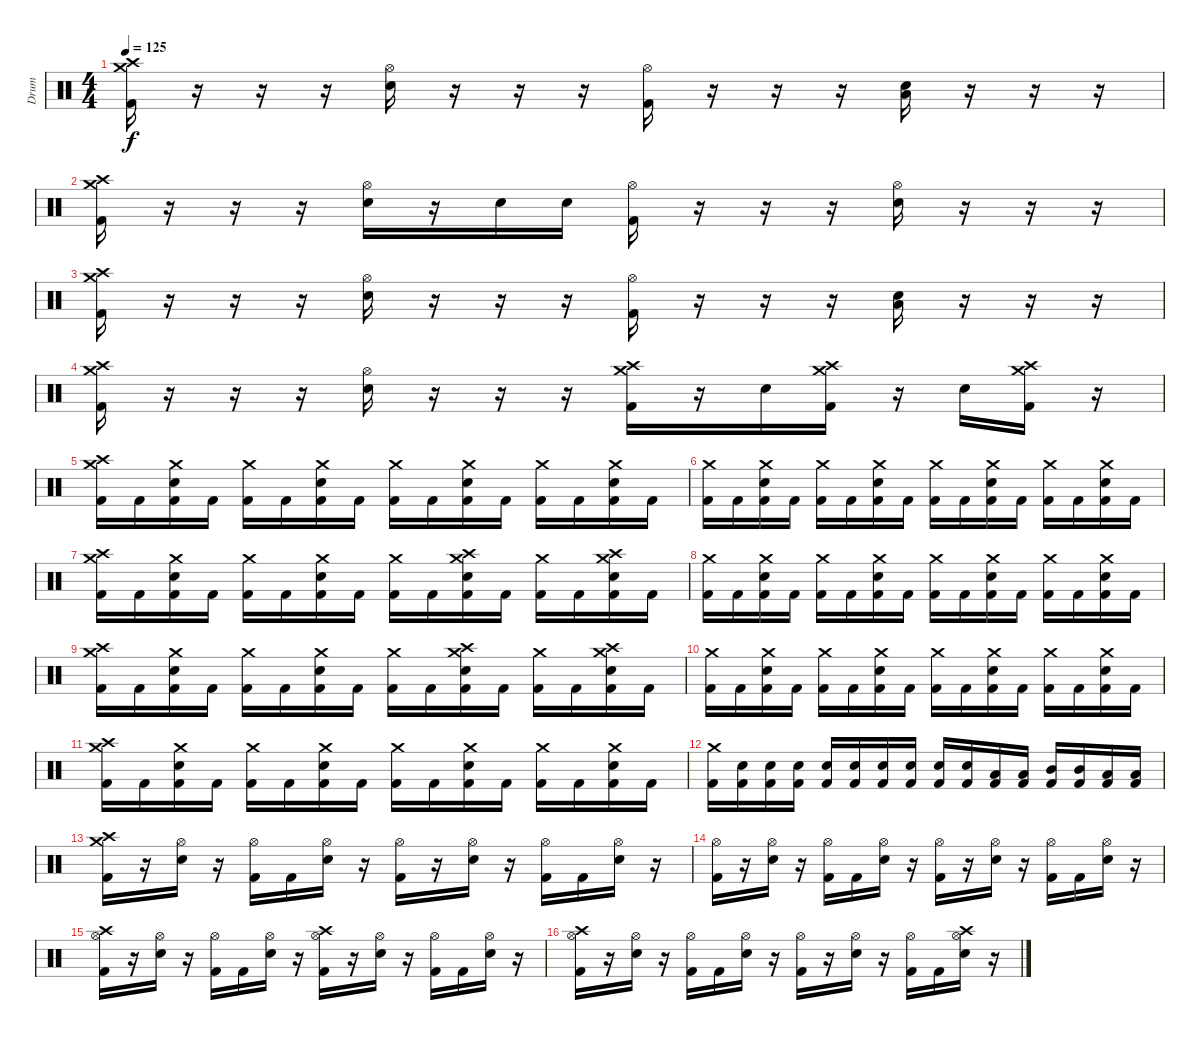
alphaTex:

\track ("Drum" "Drum") {instrument percussion}
\staff {score}
\articulation defaults
\ts (4 4)
\tempo 125
\clef neutral
\ks c
("Crash high (hit)" "Crash medium (hit)" "Kick (hit) 2").16{dy f} r.16 r.16 r.16 ("Hi-Hat (open)" "Electric Snare (hit)").16 r.16 r.16 r.16 ("Hi-Hat (open)" "Kick (hit) 2").16 r.16 r.16 r.16 ("Low Floor Tom (hit)" "Electric Snare (hit)").16 r.16 r.16 r.16 |
("Crash high (hit)" "Crash medium (hit)" "Kick (hit) 2").16 r.16 r.16 r.16 ("Hi-Hat (open)" "Electric Snare (hit)").16 r.16 "Electric Snare (hit)".16 "Electric Snare (hit)".16 ("Hi-Hat (open)" "Kick (hit) 2").16 r.16 r.16 r.16 ("Hi-Hat (open)" "Electric Snare (hit)").16 r.16 r.16 r.16 |
("Crash high (hit)" "Crash medium (hit)" "Kick (hit) 2").16 r.16 r.16 r.16 ("Hi-Hat (open)" "Electric Snare (hit)").16 r.16 r.16 r.16 ("Hi-Hat (open)" "Kick (hit) 2").16 r.16 r.16 r.16 ("Low Floor Tom (hit)" "Electric Snare (hit)").16 r.16 r.16 r.16 |
("Crash high (hit)" "Crash medium (hit)" "Kick (hit) 2").16 r.16 r.16 r.16 ("Hi-Hat (open)" "Electric Snare (hit)").16 r.16 r.16 r.16 ("Crash high (hit)" "Crash medium (hit)" "Kick (hit) 2").16 r.16 "Electric Snare (hit)".16 ("Crash high (hit)" "Crash medium (hit)" "Kick (hit) 2").16 r.16 "Electric Snare (hit)".16 ("Crash high (hit)" "Crash medium (hit)" "Kick (hit) 2").16 r.16 |
("Crash high (hit)" "Crash medium (hit)" "Kick (hit) 2").16 "Kick (hit) 2".16 ("Crash medium (hit)" "Kick (hit) 2" "Electric Snare (hit)").16 "Kick (hit) 2".16 ("Crash medium (hit)" "Kick (hit) 2").16 "Kick (hit) 2".16 ("Crash medium (hit)" "Kick (hit) 2" "Electric Snare (hit)").16 "Kick (hit) 2".16 ("Crash medium (hit)" "Kick (hit) 2").16 "Kick (hit) 2".16 ("Crash medium (hit)" "Kick (hit) 2" "Electric Snare (hit)").16 "Kick (hit) 2".16 ("Crash medium (hit)" "Kick (hit) 2").16 "Kick (hit) 2".16 ("Crash medium (hit)" "Kick (hit) 2" "Electric Snare (hit)").16 "Kick (hit) 2".16 |
("Crash medium (hit)" "Kick (hit) 2").16 "Kick (hit) 2".16 ("Crash medium (hit)" "Kick (hit) 2" "Electric Snare (hit)").16 "Kick (hit) 2".16 ("Crash medium (hit)" "Kick (hit) 2").16 "Kick (hit) 2".16 ("Crash medium (hit)" "Kick (hit) 2" "Electric Snare (hit)").16 "Kick (hit) 2".16 ("Crash medium (hit)" "Kick (hit) 2").16 "Kick (hit) 2".16 ("Crash medium (hit)" "Kick (hit) 2" "Electric Snare (hit)").16 "Kick (hit) 2".16 ("Crash medium (hit)" "Kick (hit) 2").16 "Kick (hit) 2".16 ("Crash medium (hit)" "Kick (hit) 2" "Electric Snare (hit)").16 "Kick (hit) 2".16 |
("Crash high (hit)" "Crash medium (hit)" "Kick (hit) 2").16 "Kick (hit) 2".16 ("Crash medium (hit)" "Kick (hit) 2" "Electric Snare (hit)").16 "Kick (hit) 2".16 ("Crash medium (hit)" "Kick (hit) 2").16 "Kick (hit) 2".16 ("Crash medium (hit)" "Kick (hit) 2" "Electric Snare (hit)").16 "Kick (hit) 2".16 ("Crash medium (hit)" "Kick (hit) 2").16 "Kick (hit) 2".16 ("Crash high (hit)" "Crash medium (hit)" "Kick (hit) 2" "Electric Snare (hit)").16 "Kick (hit) 2".16 ("Crash medium (hit)" "Kick (hit) 2").16 "Kick (hit) 2".16 ("Crash high (hit)" "Crash medium (hit)" "Kick (hit) 2" "Electric Snare (hit)").16 "Kick (hit) 2".16 |
("Crash medium (hit)" "Kick (hit) 2").16 "Kick (hit) 2".16 ("Crash medium (hit)" "Kick (hit) 2" "Electric Snare (hit)").16 "Kick (hit) 2".16 ("Crash medium (hit)" "Kick (hit) 2").16 "Kick (hit) 2".16 ("Crash medium (hit)" "Kick (hit) 2" "Electric Snare (hit)").16 "Kick (hit) 2".16 ("Crash medium (hit)" "Kick (hit) 2").16 "Kick (hit) 2".16 ("Crash medium (hit)" "Kick (hit) 2" "Electric Snare (hit)").16 "Kick (hit) 2".16 ("Crash medium (hit)" "Kick (hit) 2").16 "Kick (hit) 2".16 ("Crash medium (hit)" "Kick (hit) 2" "Electric Snare (hit)").16 "Kick (hit) 2".16 |
("Crash high (hit)" "Crash medium (hit)" "Kick (hit) 2").16 "Kick (hit) 2".16 ("Crash medium (hit)" "Kick (hit) 2" "Electric Snare (hit)").16 "Kick (hit) 2".16 ("Crash medium (hit)" "Kick (hit) 2").16 "Kick (hit) 2".16 ("Crash medium (hit)" "Kick (hit) 2" "Electric Snare (hit)").16 "Kick (hit) 2".16 ("Crash medium (hit)" "Kick (hit) 2").16 "Kick (hit) 2".16 ("Crash high (hit)" "Crash medium (hit)" "Kick (hit) 2" "Electric Snare (hit)").16 "Kick (hit) 2".16 ("Crash medium (hit)" "Kick (hit) 2").16 "Kick (hit) 2".16 ("Crash high (hit)" "Crash medium (hit)" "Kick (hit) 2" "Electric Snare (hit)").16 "Kick (hit) 2".16 |
("Crash medium (hit)" "Kick (hit) 2").16 "Kick (hit) 2".16 ("Crash medium (hit)" "Kick (hit) 2" "Electric Snare (hit)").16 "Kick (hit) 2".16 ("Crash medium (hit)" "Kick (hit) 2").16 "Kick (hit) 2".16 ("Crash medium (hit)" "Kick (hit) 2" "Electric Snare (hit)").16 "Kick (hit) 2".16 ("Crash medium (hit)" "Kick (hit) 2").16 "Kick (hit) 2".16 ("Crash medium (hit)" "Kick (hit) 2" "Electric Snare (hit)").16 "Kick (hit) 2".16 ("Crash medium (hit)" "Kick (hit) 2").16 "Kick (hit) 2".16 ("Crash medium (hit)" "Kick (hit) 2" "Electric Snare (hit)").16 "Kick (hit) 2".16 |
("Crash high (hit)" "Crash medium (hit)" "Kick (hit) 2").16 "Kick (hit) 2".16 ("Crash medium (hit)" "Kick (hit) 2" "Electric Snare (hit)").16 "Kick (hit) 2".16 ("Crash medium (hit)" "Kick (hit) 2").16 "Kick (hit) 2".16 ("Crash medium (hit)" "Kick (hit) 2" "Electric Snare (hit)").16 "Kick (hit) 2".16 ("Crash medium (hit)" "Kick (hit) 2").16 "Kick (hit) 2".16 ("Crash medium (hit)" "Kick (hit) 2" "Electric Snare (hit)").16 "Kick (hit) 2".16 ("Crash medium (hit)" "Kick (hit) 2").16 "Kick (hit) 2".16 ("Crash medium (hit)" "Kick (hit) 2" "Electric Snare (hit)").16 "Kick (hit) 2".16 |
("Crash medium (hit)" "Kick (hit) 2").16 ("Kick (hit) 2" "Electric Snare (hit)").16 ("Kick (hit) 2" "Electric Snare (hit)").16 ("Kick (hit) 2" "Electric Snare (hit)").16 ("Kick (hit) 2" "Electric Snare (hit)").16 ("Kick (hit) 2" "Electric Snare (hit)").16 ("Kick (hit) 2" "Electric Snare (hit)").16 ("Kick (hit) 2" "Electric Snare (hit)").16 ("Kick (hit) 2" "Electric Snare (hit)").16 ("Kick (hit) 2" "Electric Snare (hit)").16 ("Kick (hit) 2" "Low Tom (hit)").16 ("Kick (hit) 2" "Low Tom (hit)").16 ("Kick (hit) 2" "Mid Tom (hit)").16 ("Kick (hit) 2" "Mid Tom (hit)").16 ("Kick (hit) 2" "Low Floor Tom (hit)").16 ("Kick (hit) 2" "Low Floor Tom (hit)").16 |
("Crash high (hit)" "Crash medium (hit)" "Kick (hit) 2").16 r.16 ("Hi-Hat (open)" "Electric Snare (hit)").16 r.16 ("Hi-Hat (open)" "Kick (hit) 2").16 "Kick (hit) 2".16 ("Hi-Hat (open)" "Electric Snare (hit)").16 r.16 ("Hi-Hat (open)" "Kick (hit) 2").16 r.16 ("Hi-Hat (open)" "Electric Snare (hit)").16 r.16 ("Hi-Hat (open)" "Kick (hit) 2").16 "Kick (hit) 2".16 ("Hi-Hat (open)" "Electric Snare (hit)").16 r.16 |
("Hi-Hat (open)" "Kick (hit) 2").16 r.16 ("Hi-Hat (open)" "Electric Snare (hit)").16 r.16 ("Hi-Hat (open)" "Kick (hit) 2").16 "Kick (hit) 2".16 ("Hi-Hat (open)" "Electric Snare (hit)").16 r.16 ("Hi-Hat (open)" "Kick (hit) 2").16 r.16 ("Hi-Hat (open)" "Electric Snare (hit)").16 r.16 ("Hi-Hat (open)" "Kick (hit) 2").16 "Kick (hit) 2".16 ("Hi-Hat (open)" "Electric Snare (hit)").16 r.16 |
("Crash high (hit)" "Hi-Hat (open)" "Kick (hit) 2").16 r.16 ("Hi-Hat (open)" "Electric Snare (hit)").16 r.16 ("Hi-Hat (open)" "Kick (hit) 2").16 "Kick (hit) 2".16 ("Hi-Hat (open)" "Electric Snare (hit)").16 r.16 ("Crash high (hit)" "Hi-Hat (open)" "Kick (hit) 2").16 r.16 ("Hi-Hat (open)" "Electric Snare (hit)").16 r.16 ("Hi-Hat (open)" "Kick (hit) 2").16 "Kick (hit) 2".16 ("Hi-Hat (open)" "Electric Snare (hit)").16 r.16 |
("Crash high (hit)" "Hi-Hat (open)" "Kick (hit) 2").16 r.16 ("Hi-Hat (open)" "Electric Snare (hit)").16 r.16 ("Hi-Hat (open)" "Kick (hit) 2").16 "Kick (hit) 2".16 ("Hi-Hat (open)" "Electric Snare (hit)").16 r.16 ("Hi-Hat (open)" "Kick (hit) 2").16 r.16 ("Hi-Hat (open)" "Electric Snare (hit)").16 r.16 ("Hi-Hat (open)" "Kick (hit) 2").16 "Kick (hit) 2".16 ("Crash high (hit)" "Hi-Hat (open)" "Electric Snare (hit)").16 r.16
